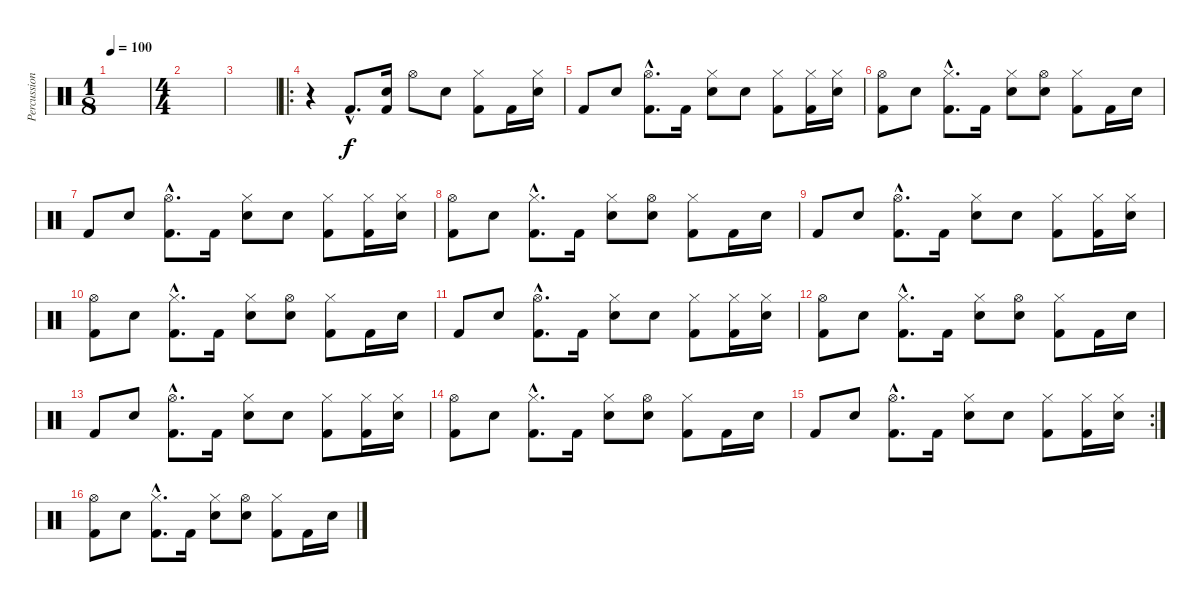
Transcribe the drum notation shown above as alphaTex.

\track ("Percussion" "Percussion") {instrument percussion}
\staff {score}
\articulation defaults
\ts (1 8)
\tempo 100
\clef neutral
\ks c
|
\ts (4 4)
|
|
\ro
r.4 "Kick (hit) 2"{hac}.8{d} ("Snare (hit) 2" "Kick (hit) 2").16 "Hi-Hat (open)".8 "Snare (hit) 2".8 ("Hi-Hat (closed)" "Kick (hit) 2").8 "Kick (hit) 2".16 ("Hi-Hat (closed)" "Snare (hit) 2").16 |
"Kick (hit) 2".8 "Snare (hit) 2".8 ("Hi-Hat (open)"{hac} "Kick (hit) 2"{hac}).8{d} "Kick (hit) 2".16 ("Hi-Hat (closed)" "Snare (hit) 2").8 "Snare (hit) 2".8 ("Hi-Hat (closed)" "Kick (hit) 2").8 ("Hi-Hat (closed)" "Kick (hit) 2").16 ("Hi-Hat (closed)" "Snare (hit) 2").16 |
("Hi-Hat (open)" "Kick (hit) 2").8 "Snare (hit) 2".8 ("Hi-Hat (closed)"{hac} "Kick (hit) 2"{hac}).8{d} "Kick (hit) 2".16 ("Hi-Hat (closed)" "Snare (hit) 2").8 ("Hi-Hat (open)" "Snare (hit) 2").8 ("Hi-Hat (closed)" "Kick (hit) 2").8 "Kick (hit) 2".16 "Snare (hit) 2".16 |
"Kick (hit) 2".8 "Snare (hit) 2".8 ("Hi-Hat (open)"{hac} "Kick (hit) 2"{hac}).8{d} "Kick (hit) 2".16 ("Hi-Hat (closed)" "Snare (hit) 2").8 "Snare (hit) 2".8 ("Hi-Hat (closed)" "Kick (hit) 2").8 ("Hi-Hat (closed)" "Kick (hit) 2").16 ("Hi-Hat (closed)" "Snare (hit) 2").16 |
("Hi-Hat (open)" "Kick (hit) 2").8 "Snare (hit) 2".8 ("Hi-Hat (closed)"{hac} "Kick (hit) 2"{hac}).8{d} "Kick (hit) 2".16 ("Hi-Hat (closed)" "Snare (hit) 2").8 ("Hi-Hat (open)" "Snare (hit) 2").8 ("Hi-Hat (closed)" "Kick (hit) 2").8 "Kick (hit) 2".16 "Snare (hit) 2".16 |
"Kick (hit) 2".8 "Snare (hit) 2".8 ("Hi-Hat (open)"{hac} "Kick (hit) 2"{hac}).8{d} "Kick (hit) 2".16 ("Hi-Hat (closed)" "Snare (hit) 2").8 "Snare (hit) 2".8 ("Hi-Hat (closed)" "Kick (hit) 2").8 ("Hi-Hat (closed)" "Kick (hit) 2").16 ("Hi-Hat (closed)" "Snare (hit) 2").16 |
("Hi-Hat (open)" "Kick (hit) 2").8 "Snare (hit) 2".8 ("Hi-Hat (closed)"{hac} "Kick (hit) 2"{hac}).8{d} "Kick (hit) 2".16 ("Hi-Hat (closed)" "Snare (hit) 2").8 ("Hi-Hat (open)" "Snare (hit) 2").8 ("Hi-Hat (closed)" "Kick (hit) 2").8 "Kick (hit) 2".16 "Snare (hit) 2".16 |
"Kick (hit) 2".8 "Snare (hit) 2".8 ("Hi-Hat (open)"{hac} "Kick (hit) 2"{hac}).8{d} "Kick (hit) 2".16 ("Hi-Hat (closed)" "Snare (hit) 2").8 "Snare (hit) 2".8 ("Hi-Hat (closed)" "Kick (hit) 2").8 ("Hi-Hat (closed)" "Kick (hit) 2").16 ("Hi-Hat (closed)" "Snare (hit) 2").16 |
("Hi-Hat (open)" "Kick (hit) 2").8 "Snare (hit) 2".8 ("Hi-Hat (closed)"{hac} "Kick (hit) 2"{hac}).8{d} "Kick (hit) 2".16 ("Hi-Hat (closed)" "Snare (hit) 2").8 ("Hi-Hat (open)" "Snare (hit) 2").8 ("Hi-Hat (closed)" "Kick (hit) 2").8 "Kick (hit) 2".16 "Snare (hit) 2".16 |
"Kick (hit) 2".8 "Snare (hit) 2".8 ("Hi-Hat (open)"{hac} "Kick (hit) 2"{hac}).8{d} "Kick (hit) 2".16 ("Hi-Hat (closed)" "Snare (hit) 2").8 "Snare (hit) 2".8 ("Hi-Hat (closed)" "Kick (hit) 2").8 ("Hi-Hat (closed)" "Kick (hit) 2").16 ("Hi-Hat (closed)" "Snare (hit) 2").16 |
("Hi-Hat (open)" "Kick (hit) 2").8 "Snare (hit) 2".8 ("Hi-Hat (closed)"{hac} "Kick (hit) 2"{hac}).8{d} "Kick (hit) 2".16 ("Hi-Hat (closed)" "Snare (hit) 2").8 ("Hi-Hat (open)" "Snare (hit) 2").8 ("Hi-Hat (closed)" "Kick (hit) 2").8 "Kick (hit) 2".16 "Snare (hit) 2".16 |
\rc 2 "Kick (hit) 2".8 "Snare (hit) 2".8
("Hi-Hat (open)"{hac} "Kick (hit) 2"{hac}).8{d} "Kick (hit) 2".16 ("Hi-Hat (closed)" "Snare (hit) 2").8 "Snare (hit) 2".8 ("Hi-Hat (closed)" "Kick (hit) 2").8 ("Hi-Hat (closed)" "Kick (hit) 2").16 ("Hi-Hat (closed)" "Snare (hit) 2").16 |
("Hi-Hat (open)" "Kick (hit) 2").8{volume 0} "Snare (hit) 2".8 ("Hi-Hat (closed)"{hac} "Kick (hit) 2"{hac}).8{d} "Kick (hit) 2".16 ("Hi-Hat (closed)" "Snare (hit) 2").8 ("Hi-Hat (open)" "Snare (hit) 2").8 ("Hi-Hat (closed)" "Kick (hit) 2").8 "Kick (hit) 2".16 "Snare (hit) 2".16
